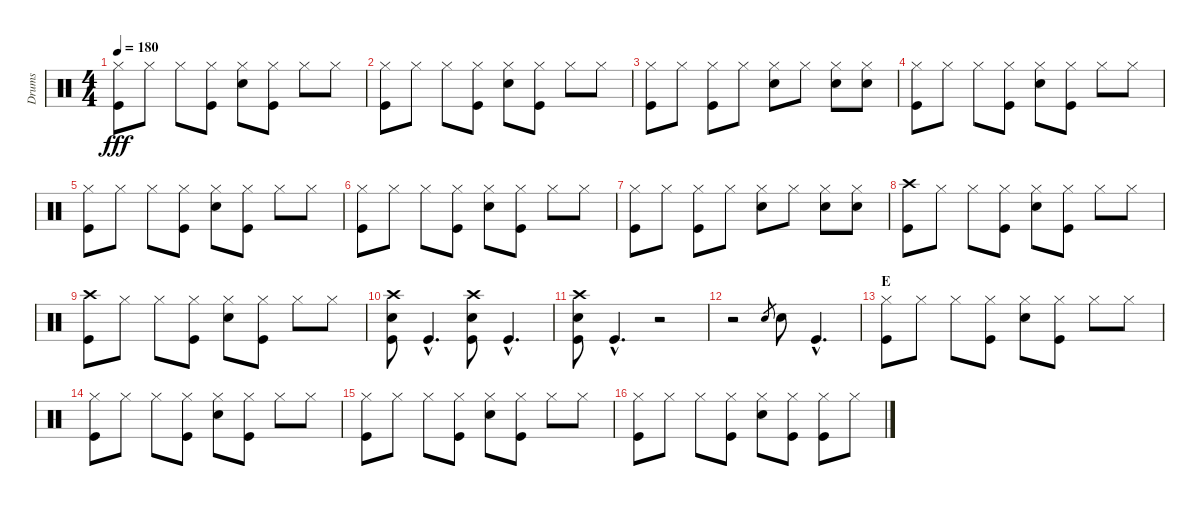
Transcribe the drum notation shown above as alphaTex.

\track ("Drums" "Drums") {instrument percussion}
\staff {score}
\articulation defaults
\ts (4 4)
\tempo 180
\clef neutral
\ks c
("Hi-Hat (closed)" "Kick (hit)").8{dy fff} "Hi-Hat (closed)".8 "Hi-Hat (closed)".8 ("Hi-Hat (closed)" "Kick (hit)").8 ("Hi-Hat (closed)" "Snare (hit) 2").8 ("Hi-Hat (closed)" "Kick (hit)").8 "Hi-Hat (closed)".8 "Hi-Hat (closed)".8 |
("Hi-Hat (closed)" "Kick (hit)").8 "Hi-Hat (closed)".8 "Hi-Hat (closed)".8 ("Hi-Hat (closed)" "Kick (hit)").8 ("Hi-Hat (closed)" "Snare (hit) 2").8 ("Hi-Hat (closed)" "Kick (hit)").8 "Hi-Hat (closed)".8 "Hi-Hat (closed)".8 |
("Hi-Hat (closed)" "Kick (hit)").8 "Hi-Hat (closed)".8 ("Hi-Hat (closed)" "Kick (hit)").8 "Hi-Hat (closed)".8 ("Hi-Hat (closed)" "Snare (hit) 2").8 "Hi-Hat (closed)".8 ("Hi-Hat (closed)" "Snare (hit) 2").8 ("Hi-Hat (closed)" "Snare (hit) 2").8 |
("Hi-Hat (closed)" "Kick (hit)").8 "Hi-Hat (closed)".8 "Hi-Hat (closed)".8 ("Hi-Hat (closed)" "Kick (hit)").8 ("Hi-Hat (closed)" "Snare (hit) 2").8 ("Hi-Hat (closed)" "Kick (hit)").8 "Hi-Hat (closed)".8 "Hi-Hat (closed)".8 |
("Hi-Hat (closed)" "Kick (hit)").8 "Hi-Hat (closed)".8 "Hi-Hat (closed)".8 ("Hi-Hat (closed)" "Kick (hit)").8 ("Hi-Hat (closed)" "Snare (hit) 2").8 ("Hi-Hat (closed)" "Kick (hit)").8 "Hi-Hat (closed)".8 "Hi-Hat (closed)".8 |
("Hi-Hat (closed)" "Kick (hit)").8 "Hi-Hat (closed)".8 "Hi-Hat (closed)".8 ("Hi-Hat (closed)" "Kick (hit)").8 ("Hi-Hat (closed)" "Snare (hit) 2").8 ("Hi-Hat (closed)" "Kick (hit)").8 "Hi-Hat (closed)".8 "Hi-Hat (closed)".8 |
("Hi-Hat (closed)" "Kick (hit)").8 "Hi-Hat (closed)".8 ("Hi-Hat (closed)" "Kick (hit)").8 "Hi-Hat (closed)".8 ("Hi-Hat (closed)" "Snare (hit) 2").8 "Hi-Hat (closed)".8 ("Hi-Hat (closed)" "Snare (hit) 2").8 ("Hi-Hat (closed)" "Snare (hit) 2").8 |
("Crash high (hit)" "Kick (hit)").8 "Hi-Hat (closed)".8 "Hi-Hat (closed)".8 ("Hi-Hat (closed)" "Kick (hit)").8 ("Hi-Hat (closed)" "Snare (hit) 2").8 ("Hi-Hat (closed)" "Kick (hit)").8 "Hi-Hat (closed)".8 "Hi-Hat (closed)".8 |
("Crash high (hit)" "Kick (hit)").8 "Hi-Hat (closed)".8 "Hi-Hat (closed)".8 ("Hi-Hat (closed)" "Kick (hit)").8 ("Hi-Hat (closed)" "Snare (hit) 2").8 ("Hi-Hat (closed)" "Kick (hit)").8 "Hi-Hat (closed)".8 "Hi-Hat (closed)".8 |
("Crash high (hit)" "Snare (hit) 2" "Kick (hit)").8 "Kick (hit)"{hac}.4{d} ("Crash high (hit)" "Snare (hit) 2" "Kick (hit)").8 "Kick (hit)"{hac}.4{d} |
("Crash high (hit)" "Snare (hit) 2" "Kick (hit)").8 "Kick (hit)"{hac}.4{d} r.2 |
r.2 "Snare (hit) 2".8{gr} "Snare (hit) 2".8 "Kick (hit)"{hac}.4{d} |
\section ("" "E")
("Hi-Hat (closed)" "Kick (hit)").8 "Hi-Hat (closed)".8 "Hi-Hat (closed)".8 ("Hi-Hat (closed)" "Kick (hit)").8 ("Hi-Hat (closed)" "Snare (hit) 2").8 ("Hi-Hat (closed)" "Kick (hit)").8 "Hi-Hat (closed)".8 "Hi-Hat (closed)".8 |
("Hi-Hat (closed)" "Kick (hit)").8 "Hi-Hat (closed)".8 "Hi-Hat (closed)".8 ("Hi-Hat (closed)" "Kick (hit)").8 ("Hi-Hat (closed)" "Snare (hit) 2").8 ("Hi-Hat (closed)" "Kick (hit)").8 "Hi-Hat (closed)".8 "Hi-Hat (closed)".8 |
("Hi-Hat (closed)" "Kick (hit)").8 "Hi-Hat (closed)".8 "Hi-Hat (closed)".8 ("Hi-Hat (closed)" "Kick (hit)").8 ("Hi-Hat (closed)" "Snare (hit) 2").8 ("Hi-Hat (closed)" "Kick (hit)").8 "Hi-Hat (closed)".8 "Hi-Hat (closed)".8 |
("Hi-Hat (closed)" "Kick (hit)").8 "Hi-Hat (closed)".8 "Hi-Hat (closed)".8 ("Hi-Hat (closed)" "Kick (hit)").8 ("Hi-Hat (closed)" "Snare (hit) 2").8 ("Hi-Hat (closed)" "Kick (hit)").8 ("Hi-Hat (closed)" "Kick (hit)").8 "Hi-Hat (closed)".8
